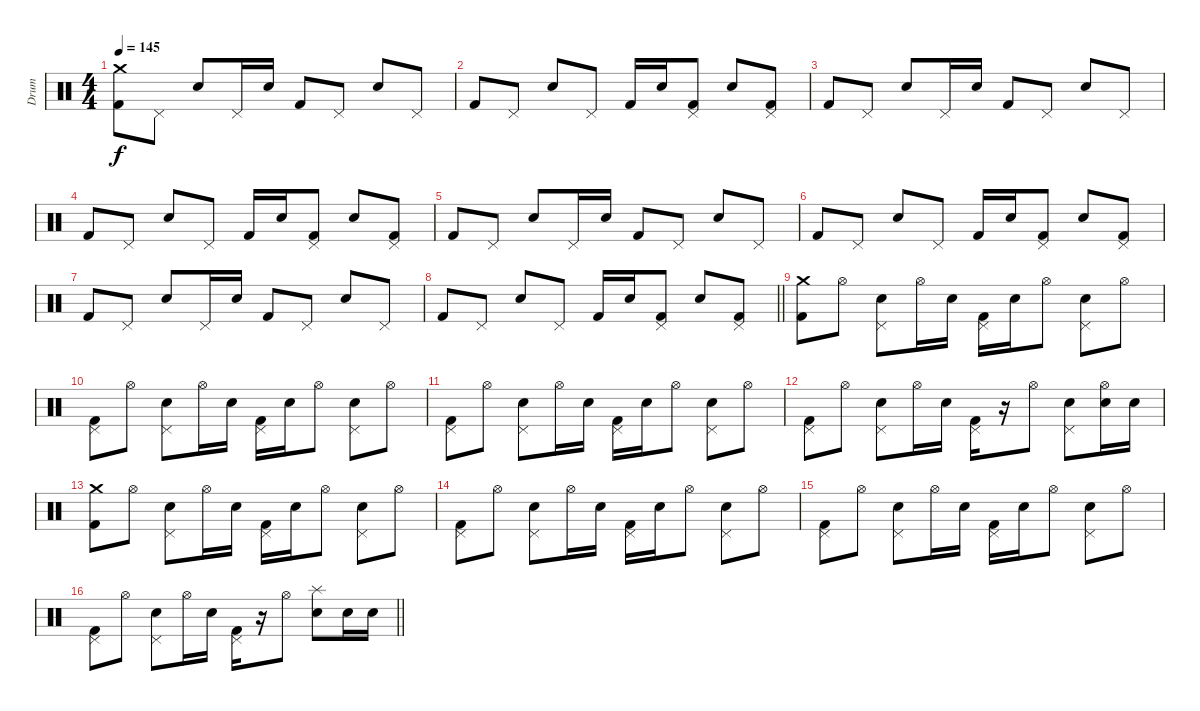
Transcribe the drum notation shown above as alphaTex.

\track ("Drum" "Drum") {instrument percussion}
\staff {score}
\articulation defaults
\ts (4 4)
\tempo 145
\clef neutral
\ks c
("Crash medium (hit)" "Kick (hit) 2").8{dy f} "Pedal Hi-Hat (hit)".8 "Snare (hit) 2".8 "Pedal Hi-Hat (hit)".16 "Snare (hit) 2".16 "Kick (hit) 2".8 "Pedal Hi-Hat (hit)".8 "Snare (hit) 2".8 "Pedal Hi-Hat (hit)".8 |
"Kick (hit) 2".8 "Pedal Hi-Hat (hit)".8 "Snare (hit) 2".8 "Pedal Hi-Hat (hit)".8 "Kick (hit) 2".16 "Snare (hit) 2".16 ("Pedal Hi-Hat (hit)" "Kick (hit) 2").8 "Snare (hit) 2".8 ("Pedal Hi-Hat (hit)" "Kick (hit) 2").8 |
"Kick (hit) 2".8 "Pedal Hi-Hat (hit)".8 "Snare (hit) 2".8 "Pedal Hi-Hat (hit)".16 "Snare (hit) 2".16 "Kick (hit) 2".8 "Pedal Hi-Hat (hit)".8 "Snare (hit) 2".8 "Pedal Hi-Hat (hit)".8 |
"Kick (hit) 2".8 "Pedal Hi-Hat (hit)".8 "Snare (hit) 2".8 "Pedal Hi-Hat (hit)".8 "Kick (hit) 2".16 "Snare (hit) 2".16 ("Pedal Hi-Hat (hit)" "Kick (hit) 2").8 "Snare (hit) 2".8 ("Pedal Hi-Hat (hit)" "Kick (hit) 2").8 |
"Kick (hit) 2".8 "Pedal Hi-Hat (hit)".8 "Snare (hit) 2".8 "Pedal Hi-Hat (hit)".16 "Snare (hit) 2".16 "Kick (hit) 2".8 "Pedal Hi-Hat (hit)".8 "Snare (hit) 2".8 "Pedal Hi-Hat (hit)".8 |
"Kick (hit) 2".8 "Pedal Hi-Hat (hit)".8 "Snare (hit) 2".8 "Pedal Hi-Hat (hit)".8 "Kick (hit) 2".16 "Snare (hit) 2".16 ("Pedal Hi-Hat (hit)" "Kick (hit) 2").8 "Snare (hit) 2".8 ("Pedal Hi-Hat (hit)" "Kick (hit) 2").8 |
"Kick (hit) 2".8 "Pedal Hi-Hat (hit)".8 "Snare (hit) 2".8 "Pedal Hi-Hat (hit)".16 "Snare (hit) 2".16 "Kick (hit) 2".8 "Pedal Hi-Hat (hit)".8 "Snare (hit) 2".8 "Pedal Hi-Hat (hit)".8 |
\barLineRight lightlight "Kick (hit) 2".8 "Pedal Hi-Hat (hit)".8 "Snare (hit) 2".8 "Pedal Hi-Hat (hit)".8 "Kick (hit) 2".16 "Snare (hit) 2".16
("Pedal Hi-Hat (hit)" "Kick (hit) 2").8 "Snare (hit) 2".8 ("Pedal Hi-Hat (hit)" "Kick (hit) 2").8 |
("Crash medium (hit)" "Kick (hit) 2").8 "Hi-Hat (open)".8 ("Pedal Hi-Hat (hit)" "Snare (hit) 2").8 "Hi-Hat (open)".16 "Snare (hit) 2".16 ("Pedal Hi-Hat (hit)" "Kick (hit) 2").16 "Snare (hit) 2".16 "Hi-Hat (open)".8 ("Pedal Hi-Hat (hit)" "Snare (hit) 2").8 "Hi-Hat (open)".8 |
("Pedal Hi-Hat (hit)" "Kick (hit) 2").8 "Hi-Hat (open)".8 ("Pedal Hi-Hat (hit)" "Snare (hit) 2").8 "Hi-Hat (open)".16 "Snare (hit) 2".16 ("Pedal Hi-Hat (hit)" "Kick (hit) 2").16 "Snare (hit) 2".16 "Hi-Hat (open)".8 ("Pedal Hi-Hat (hit)" "Snare (hit) 2").8 "Hi-Hat (open)".8 |
("Pedal Hi-Hat (hit)" "Kick (hit) 2").8 "Hi-Hat (open)".8 ("Pedal Hi-Hat (hit)" "Snare (hit) 2").8 "Hi-Hat (open)".16 "Snare (hit) 2".16 ("Pedal Hi-Hat (hit)" "Kick (hit) 2").16 "Snare (hit) 2".16 "Hi-Hat (open)".8 ("Pedal Hi-Hat (hit)" "Snare (hit) 2").8 "Hi-Hat (open)".8 |
("Pedal Hi-Hat (hit)" "Kick (hit) 2").8 "Hi-Hat (open)".8 ("Pedal Hi-Hat (hit)" "Snare (hit) 2").8 "Hi-Hat (open)".16 "Snare (hit) 2".16 ("Pedal Hi-Hat (hit)" "Kick (hit) 2").16 r.16 "Hi-Hat (open)".8 ("Pedal Hi-Hat (hit)" "Snare (hit) 2").8 ("Hi-Hat (open)" "Snare (hit) 2").16 "Snare (hit) 2".16 |
("Crash medium (hit)" "Kick (hit) 2").8 "Hi-Hat (open)".8 ("Pedal Hi-Hat (hit)" "Snare (hit) 2").8 "Hi-Hat (open)".16 "Snare (hit) 2".16 ("Pedal Hi-Hat (hit)" "Kick (hit) 2").16 "Snare (hit) 2".16 "Hi-Hat (open)".8 ("Pedal Hi-Hat (hit)" "Snare (hit) 2").8 "Hi-Hat (open)".8 |
("Pedal Hi-Hat (hit)" "Kick (hit) 2").8 "Hi-Hat (open)".8 ("Pedal Hi-Hat (hit)" "Snare (hit) 2").8 "Hi-Hat (open)".16 "Snare (hit) 2".16 ("Pedal Hi-Hat (hit)" "Kick (hit) 2").16 "Snare (hit) 2".16 "Hi-Hat (open)".8 ("Pedal Hi-Hat (hit)" "Snare (hit) 2").8 "Hi-Hat (open)".8 |
("Pedal Hi-Hat (hit)" "Kick (hit) 2").8 "Hi-Hat (open)".8 ("Pedal Hi-Hat (hit)" "Snare (hit) 2").8 "Hi-Hat (open)".16 "Snare (hit) 2".16 ("Pedal Hi-Hat (hit)" "Kick (hit) 2").16 "Snare (hit) 2".16 "Hi-Hat (open)".8 ("Pedal Hi-Hat (hit)" "Snare (hit) 2").8 "Hi-Hat (open)".8 |
\barLineRight lightlight
("Pedal Hi-Hat (hit)" "Kick (hit) 2").8 "Hi-Hat (open)".8 ("Pedal Hi-Hat (hit)" "Snare (hit) 2").8 "Hi-Hat (open)".16 "Snare (hit) 2".16 ("Pedal Hi-Hat (hit)" "Kick (hit) 2").16 r.16 "Hi-Hat (open)".8 ("Splash (hit)" "Snare (hit) 2").8 "Snare (hit) 2".16 "Snare (hit) 2".16
